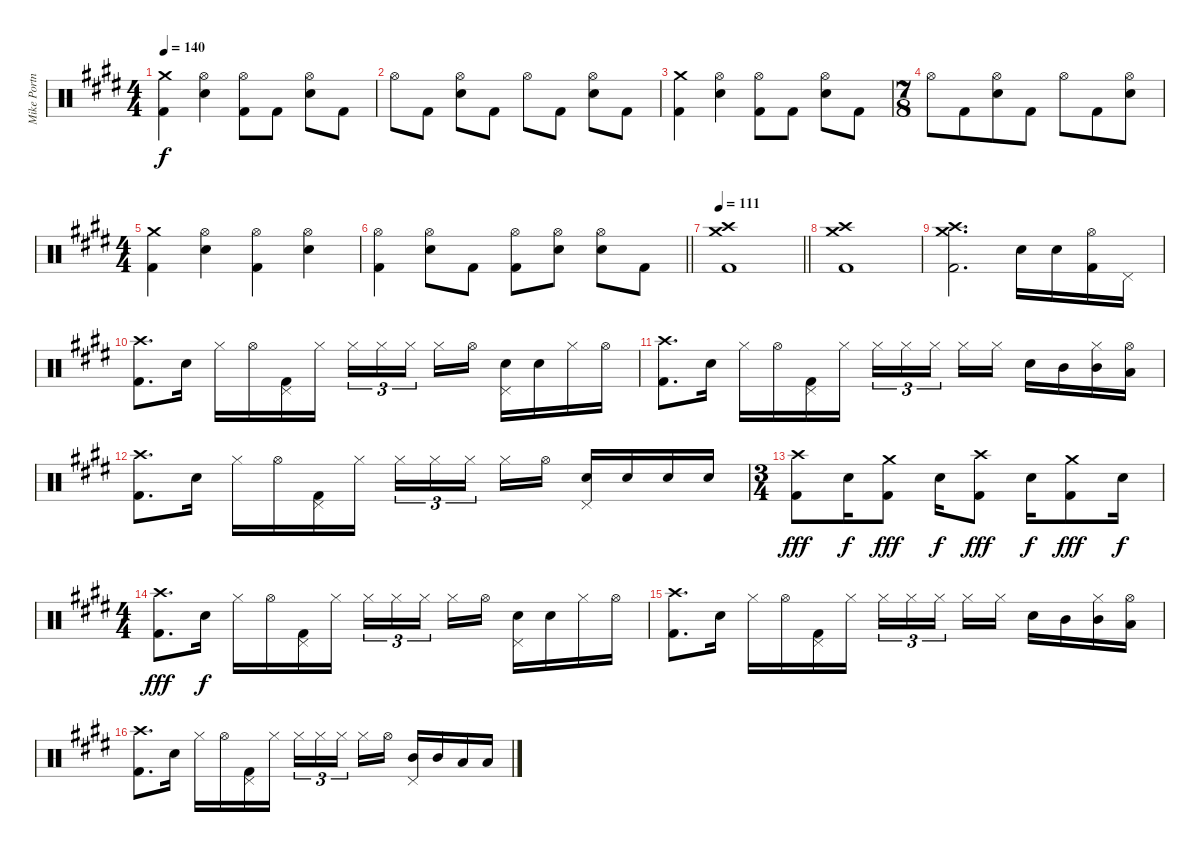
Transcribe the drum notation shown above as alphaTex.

\track ("Mike Portnoy - Drums" "Mike Portn") {instrument percussion}
\staff {score}
\articulation defaults
\ts (4 4)
\tempo 140
\clef neutral
\ks c#minor
("Crash medium (hit)" "Kick (hit) 2").4{dy f} ("Hi-Hat (open)" "Electric Snare (hit)").4 ("Hi-Hat (open)" "Kick (hit) 2").8 "Kick (hit) 2".8 ("Hi-Hat (open)" "Electric Snare (hit)").8 "Kick (hit) 2".8 |
"Hi-Hat (open)".8 "Kick (hit) 2".8 ("Hi-Hat (open)" "Electric Snare (hit)").8 "Kick (hit) 2".8 "Hi-Hat (open)".8 "Kick (hit) 2".8 ("Hi-Hat (open)" "Electric Snare (hit)").8 "Kick (hit) 2".8 |
("Crash medium (hit)" "Kick (hit) 2").4 ("Hi-Hat (open)" "Electric Snare (hit)").4 ("Hi-Hat (open)" "Kick (hit) 2").8 "Kick (hit) 2".8 ("Hi-Hat (open)" "Electric Snare (hit)").8 "Kick (hit) 2".8 |
\ts (7 8)
"Hi-Hat (open)".8 "Kick (hit) 2".8 ("Hi-Hat (open)" "Electric Snare (hit)").8 "Kick (hit) 2".8 "Hi-Hat (open)".8 "Kick (hit) 2".8 ("Hi-Hat (open)" "Electric Snare (hit)").8 |
\ts (4 4)
\ks e
("Crash medium (hit)" "Kick (hit) 2").4 ("Hi-Hat (open)" "Electric Snare (hit)").4 ("Hi-Hat (open)" "Kick (hit) 2").4 ("Hi-Hat (open)" "Electric Snare (hit)").4 |
\barLineRight lightlight
\ks c#minor
("Hi-Hat (open)" "Kick (hit) 2").4 ("Hi-Hat (open)" "Electric Snare (hit)").8 "Kick (hit) 2".8 ("Hi-Hat (open)" "Kick (hit) 2").8 ("Hi-Hat (open)" "Electric Snare (hit)").8 ("Hi-Hat (open)" "Electric Snare (hit)").8 "Kick (hit) 2".8 |
\tempo 111
\barLineRight lightlight
("Crash medium (hit)" "Crash high (hit)" "Kick (hit) 2").1 |
("Crash medium (hit)" "Crash high (hit)" "Kick (hit) 2").1 |
\ks e
("Crash medium (hit)" "Crash high (hit)" "Kick (hit) 2").2{d} "Electric Snare (hit)".16 "Electric Snare (hit)".16 ("Hi-Hat (open)" "Kick (hit) 2").16 "Pedal Hi-Hat (hit)".16 |
\ks c#minor
("Crash high (hit)" "Kick (hit) 2").8{d} "Electric Snare (hit)".16 "Hi-Hat (closed)".16 "Hi-Hat (open)".16 ("Pedal Hi-Hat (hit)" "Kick (hit) 2").16 "Hi-Hat (closed)".16 "Hi-Hat (closed)".16{tu (3 2)} "Hi-Hat (closed)".16{tu (3 2)} "Hi-Hat (closed)".16{tu (3 2) beam splitsecondary} "Hi-Hat (closed)".16 "Hi-Hat (open)".16 ("Pedal Hi-Hat (hit)" "Electric Snare (hit)").16 "Electric Snare (hit)".16 "Hi-Hat (closed)".16 "Hi-Hat (open)".16 |
("Crash high (hit)" "Kick (hit) 2").8{d} "Electric Snare (hit)".16 "Hi-Hat (closed)".16 "Hi-Hat (open)".16 ("Pedal Hi-Hat (hit)" "Kick (hit) 2").16 "Hi-Hat (closed)".16 "Hi-Hat (closed)".16{tu (3 2)} "Hi-Hat (closed)".16{tu (3 2)} "Hi-Hat (closed)".16{tu (3 2) beam splitsecondary} "Hi-Hat (closed)".16 "Hi-Hat (closed)".16 "Electric Snare (hit)".16 "Mid Tom (hit)".16 ("Hi-Hat (closed)" "Mid Tom (hit)").16 ("Hi-Hat (open)" "Low Tom (hit)").16 |
\ks e
("Crash high (hit)" "Kick (hit) 2").8{d} "Electric Snare (hit)".16 "Hi-Hat (closed)".16 "Hi-Hat (open)".16 ("Pedal Hi-Hat (hit)" "Kick (hit) 2").16 "Hi-Hat (closed)".16 "Hi-Hat (closed)".16{tu (3 2)} "Hi-Hat (closed)".16{tu (3 2)} "Hi-Hat (closed)".16{tu (3 2) beam splitsecondary} "Hi-Hat (closed)".16 "Hi-Hat (open)".16 ("Pedal Hi-Hat (hit)" "Electric Snare (hit)").16 "Electric Snare (hit)".16 "Electric Snare (hit)".16 "Electric Snare (hit)".16 |
\ts (3 4)
\ks c#minor
("Crash high (hit)" "Kick (hit) 2").8{dy fff} "Electric Snare (hit)".16{dy f} ("Crash medium (hit)" "Kick (hit) 2").8{dy fff} "Electric Snare (hit)".16{dy f} ("Crash high (hit)" "Kick (hit) 2").8{dy fff} "Electric Snare (hit)".16{dy f} ("Crash medium (hit)" "Kick (hit) 2").8{dy fff} "Electric Snare (hit)".16{dy f} |
\ts (4 4)
("Crash high (hit)" "Kick (hit) 2").8{d dy fff} "Electric Snare (hit)".16{dy f} "Hi-Hat (closed)".16 "Hi-Hat (open)".16 ("Pedal Hi-Hat (hit)" "Kick (hit) 2").16 "Hi-Hat (closed)".16 "Hi-Hat (closed)".16{tu (3 2)} "Hi-Hat (closed)".16{tu (3 2)} "Hi-Hat (closed)".16{tu (3 2) beam splitsecondary} "Hi-Hat (closed)".16 "Hi-Hat (open)".16 ("Pedal Hi-Hat (hit)" "Electric Snare (hit)").16 "Electric Snare (hit)".16 "Hi-Hat (closed)".16 "Hi-Hat (open)".16 |
("Crash high (hit)" "Kick (hit) 2").8{d} "Electric Snare (hit)".16 "Hi-Hat (closed)".16 "Hi-Hat (open)".16 ("Pedal Hi-Hat (hit)" "Kick (hit) 2").16 "Hi-Hat (closed)".16 "Hi-Hat (closed)".16{tu (3 2)} "Hi-Hat (closed)".16{tu (3 2)} "Hi-Hat (closed)".16{tu (3 2) beam splitsecondary} "Hi-Hat (closed)".16 "Hi-Hat (closed)".16 "Electric Snare (hit)".16 "Mid Tom (hit)".16 ("Hi-Hat (closed)" "Mid Tom (hit)").16 ("Hi-Hat (open)" "Low Tom (hit)").16 |
\ks e
("Crash high (hit)" "Kick (hit) 2").8{d} "Electric Snare (hit)".16 "Hi-Hat (closed)".16 "Hi-Hat (open)".16 ("Pedal Hi-Hat (hit)" "Kick (hit) 2").16 "Hi-Hat (closed)".16 "Hi-Hat (closed)".16{tu (3 2)} "Hi-Hat (closed)".16{tu (3 2)} "Hi-Hat (closed)".16{tu (3 2) beam splitsecondary} "Hi-Hat (closed)".16 "Hi-Hat (open)".16 ("Pedal Hi-Hat (hit)" "Mid Tom (hit)").16 "Mid Tom (hit)".16 "Low Tom (hit)".16 "Low Tom (hit)".16
